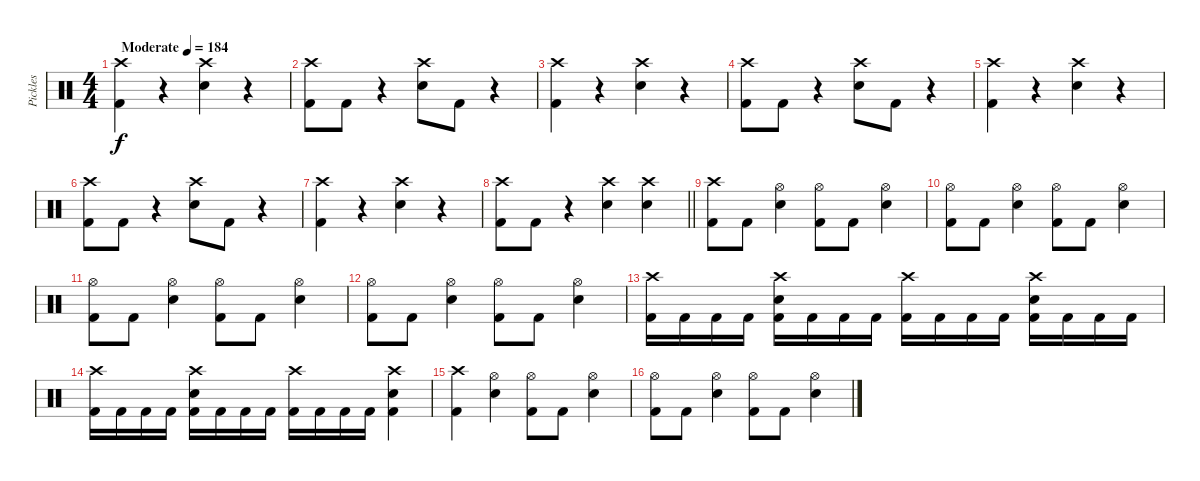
\track ("Pickles" "Pickles") {instrument percussion}
\staff {score}
\articulation defaults
\ts (4 4)
\tempo (184 "Moderate")
\clef neutral
\ks aminor
("Crash high (hit)" "Kick (hit) 2").4{dy f} r.4 ("Crash high (hit)" "Snare (hit) 2").4 r.4 |
("Crash high (hit)" "Kick (hit) 2").8 "Kick (hit) 2".8 r.4 ("Crash high (hit)" "Snare (hit) 2").8 "Kick (hit) 2".8 r.4 |
("Crash high (hit)" "Kick (hit) 2").4 r.4 ("Crash high (hit)" "Snare (hit) 2").4 r.4 |
("Crash high (hit)" "Kick (hit) 2").8 "Kick (hit) 2".8 r.4 ("Crash high (hit)" "Snare (hit) 2").8 "Kick (hit) 2".8 r.4 |
("Crash high (hit)" "Kick (hit) 2").4 r.4 ("Crash high (hit)" "Snare (hit) 2").4 r.4 |
("Crash high (hit)" "Kick (hit) 2").8 "Kick (hit) 2".8 r.4 ("Crash high (hit)" "Snare (hit) 2").8 "Kick (hit) 2".8 r.4 |
("Crash high (hit)" "Kick (hit) 2").4 r.4 ("Crash high (hit)" "Snare (hit) 2").4 r.4 |
\barLineRight lightlight
("Crash high (hit)" "Kick (hit) 2").8 "Kick (hit) 2".8 r.4 ("Crash high (hit)" "Snare (hit) 2").4 ("Crash high (hit)" "Snare (hit) 2").4 |
("Crash high (hit)" "Kick (hit) 2").8 "Kick (hit) 2".8 ("Hi-Hat (open)" "Snare (hit) 2").4 ("Hi-Hat (open)" "Kick (hit) 2").8 "Kick (hit) 2".8 ("Hi-Hat (open)" "Snare (hit) 2").4 |
("Hi-Hat (open)" "Kick (hit) 2").8 "Kick (hit) 2".8 ("Hi-Hat (open)" "Snare (hit) 2").4 ("Hi-Hat (open)" "Kick (hit) 2").8 "Kick (hit) 2".8 ("Hi-Hat (open)" "Snare (hit) 2").4 |
("Hi-Hat (open)" "Kick (hit) 2").8 "Kick (hit) 2".8 ("Hi-Hat (open)" "Snare (hit) 2").4 ("Hi-Hat (open)" "Kick (hit) 2").8 "Kick (hit) 2".8 ("Hi-Hat (open)" "Snare (hit) 2").4 |
("Hi-Hat (open)" "Kick (hit) 2").8 "Kick (hit) 2".8 ("Hi-Hat (open)" "Snare (hit) 2").4 ("Hi-Hat (open)" "Kick (hit) 2").8 "Kick (hit) 2".8 ("Hi-Hat (open)" "Snare (hit) 2").4 |
("Crash high (hit)" "Kick (hit) 2").16 "Kick (hit) 2".16 "Kick (hit) 2".16 "Kick (hit) 2".16 ("Crash high (hit)" "Snare (hit) 2" "Kick (hit) 2").16 "Kick (hit) 2".16 "Kick (hit) 2".16 "Kick (hit) 2".16 ("Crash high (hit)" "Kick (hit) 2").16 "Kick (hit) 2".16 "Kick (hit) 2".16 "Kick (hit) 2".16 ("Crash high (hit)" "Snare (hit) 2" "Kick (hit) 2").16 "Kick (hit) 2".16 "Kick (hit) 2".16 "Kick (hit) 2".16 |
("Crash high (hit)" "Kick (hit) 2").16 "Kick (hit) 2".16 "Kick (hit) 2".16 "Kick (hit) 2".16 ("Crash high (hit)" "Snare (hit) 2" "Kick (hit) 2").16 "Kick (hit) 2".16 "Kick (hit) 2".16 "Kick (hit) 2".16 ("Crash high (hit)" "Kick (hit) 2").16 "Kick (hit) 2".16 "Kick (hit) 2".16 "Kick (hit) 2".16 ("Crash high (hit)" "Snare (hit) 2" "Kick (hit) 2").4 |
("Crash high (hit)" "Kick (hit) 2").4 ("Hi-Hat (open)" "Snare (hit) 2").4 ("Hi-Hat (open)" "Kick (hit) 2").8 "Kick (hit) 2".8 ("Hi-Hat (open)" "Snare (hit) 2").4 |
("Hi-Hat (open)" "Kick (hit) 2").8 "Kick (hit) 2".8 ("Hi-Hat (open)" "Snare (hit) 2").4 ("Hi-Hat (open)" "Kick (hit) 2").8 "Kick (hit) 2".8 ("Hi-Hat (open)" "Snare (hit) 2").4
